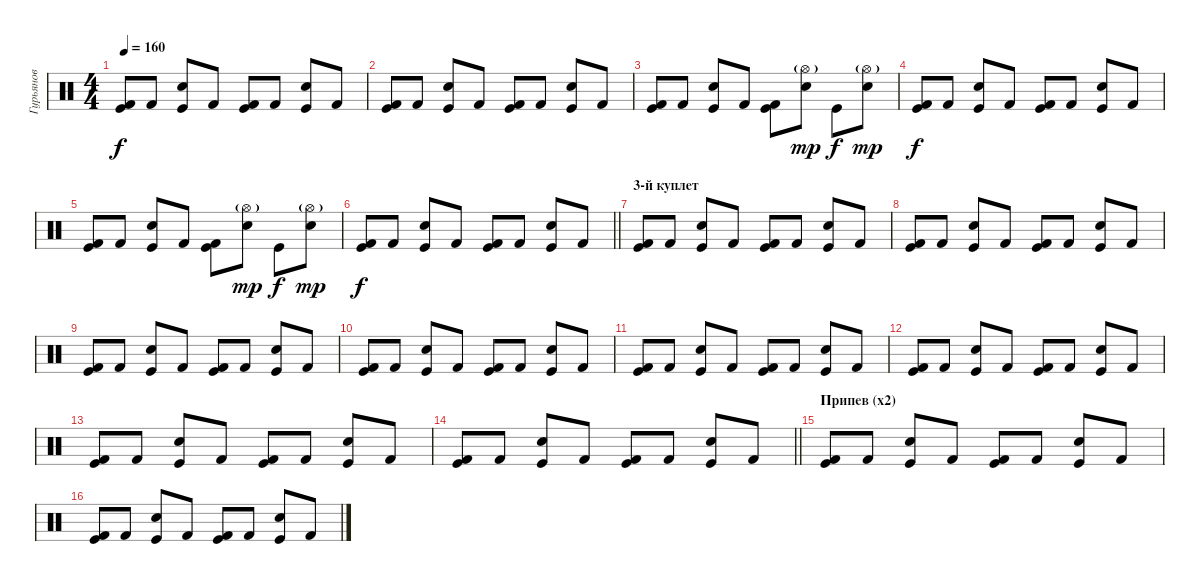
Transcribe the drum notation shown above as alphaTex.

\track ("Гурьянов" "Гурьянов") {instrument percussion}
\staff {score}
\articulation defaults
\ts (4 4)
\tempo 160
\clef neutral
\ks c
("Kick (hit)" "Kick (hit) 2").8{dy f} "Kick (hit) 2".8 ("Snare (hit) 2" "Kick (hit)").8 "Kick (hit) 2".8 ("Kick (hit)" "Kick (hit) 2").8 "Kick (hit) 2".8 ("Snare (hit) 2" "Kick (hit)").8 "Kick (hit) 2".8 |
("Kick (hit)" "Kick (hit) 2").8 "Kick (hit) 2".8 ("Snare (hit) 2" "Kick (hit)").8 "Kick (hit) 2".8 ("Kick (hit)" "Kick (hit) 2").8 "Kick (hit) 2".8 ("Snare (hit) 2" "Kick (hit)").8 "Kick (hit) 2".8 |
("Kick (hit)" "Kick (hit) 2").8 "Kick (hit) 2".8 ("Snare (hit) 2" "Kick (hit)").8 "Kick (hit) 2".8 ("Kick (hit)" "Kick (hit) 2").8 ("Hi-Hat (open)"{g} "Snare (hit) 2").8{dy mp} "Kick (hit)".8{dy f} ("Hi-Hat (open)"{g} "Snare (hit) 2").8{dy mp} |
("Kick (hit)" "Kick (hit) 2").8{dy f} "Kick (hit) 2".8 ("Snare (hit) 2" "Kick (hit)").8 "Kick (hit) 2".8 ("Kick (hit)" "Kick (hit) 2").8 "Kick (hit) 2".8 ("Snare (hit) 2" "Kick (hit)").8 "Kick (hit) 2".8 |
("Kick (hit)" "Kick (hit) 2").8 "Kick (hit) 2".8 ("Snare (hit) 2" "Kick (hit)").8 "Kick (hit) 2".8 ("Kick (hit)" "Kick (hit) 2").8 ("Hi-Hat (open)"{g} "Snare (hit) 2").8{dy mp} "Kick (hit)".8{dy f} ("Hi-Hat (open)"{g} "Snare (hit) 2").8{dy mp} |
\barLineRight lightlight
("Kick (hit)" "Kick (hit) 2").8{dy f} "Kick (hit) 2".8 ("Snare (hit) 2" "Kick (hit)").8 "Kick (hit) 2".8 ("Kick (hit)" "Kick (hit) 2").8 "Kick (hit) 2".8 ("Snare (hit) 2" "Kick (hit)").8 "Kick (hit) 2".8 |
\section ("" "3-й куплет")
("Kick (hit)" "Kick (hit) 2").8 "Kick (hit) 2".8 ("Snare (hit) 2" "Kick (hit)").8 "Kick (hit) 2".8 ("Kick (hit)" "Kick (hit) 2").8 "Kick (hit) 2".8 ("Snare (hit) 2" "Kick (hit)").8 "Kick (hit) 2".8 |
("Kick (hit)" "Kick (hit) 2").8 "Kick (hit) 2".8 ("Snare (hit) 2" "Kick (hit)").8 "Kick (hit) 2".8 ("Kick (hit)" "Kick (hit) 2").8 "Kick (hit) 2".8 ("Snare (hit) 2" "Kick (hit)").8 "Kick (hit) 2".8 |
("Kick (hit)" "Kick (hit) 2").8 "Kick (hit) 2".8 ("Snare (hit) 2" "Kick (hit)").8 "Kick (hit) 2".8 ("Kick (hit)" "Kick (hit) 2").8 "Kick (hit) 2".8 ("Snare (hit) 2" "Kick (hit)").8 "Kick (hit) 2".8 |
("Kick (hit)" "Kick (hit) 2").8 "Kick (hit) 2".8 ("Snare (hit) 2" "Kick (hit)").8 "Kick (hit) 2".8 ("Kick (hit)" "Kick (hit) 2").8 "Kick (hit) 2".8 ("Snare (hit) 2" "Kick (hit)").8 "Kick (hit) 2".8 |
("Kick (hit)" "Kick (hit) 2").8 "Kick (hit) 2".8 ("Snare (hit) 2" "Kick (hit)").8 "Kick (hit) 2".8 ("Kick (hit)" "Kick (hit) 2").8 "Kick (hit) 2".8 ("Snare (hit) 2" "Kick (hit)").8 "Kick (hit) 2".8 |
("Kick (hit)" "Kick (hit) 2").8 "Kick (hit) 2".8 ("Snare (hit) 2" "Kick (hit)").8 "Kick (hit) 2".8 ("Kick (hit)" "Kick (hit) 2").8 "Kick (hit) 2".8 ("Snare (hit) 2" "Kick (hit)").8 "Kick (hit) 2".8 |
("Kick (hit)" "Kick (hit) 2").8 "Kick (hit) 2".8 ("Snare (hit) 2" "Kick (hit)").8 "Kick (hit) 2".8 ("Kick (hit)" "Kick (hit) 2").8 "Kick (hit) 2".8 ("Snare (hit) 2" "Kick (hit)").8 "Kick (hit) 2".8 |
\barLineRight lightlight
("Kick (hit)" "Kick (hit) 2").8 "Kick (hit) 2".8 ("Snare (hit) 2" "Kick (hit)").8 "Kick (hit) 2".8 ("Kick (hit)" "Kick (hit) 2").8 "Kick (hit) 2".8 ("Snare (hit) 2" "Kick (hit)").8 "Kick (hit) 2".8 |
\section ("" "Припев (х2)")
("Kick (hit)" "Kick (hit) 2").8 "Kick (hit) 2".8 ("Snare (hit) 2" "Kick (hit)").8 "Kick (hit) 2".8 ("Kick (hit)" "Kick (hit) 2").8 "Kick (hit) 2".8 ("Snare (hit) 2" "Kick (hit)").8 "Kick (hit) 2".8 |
("Kick (hit)" "Kick (hit) 2").8 "Kick (hit) 2".8 ("Snare (hit) 2" "Kick (hit)").8 "Kick (hit) 2".8 ("Kick (hit)" "Kick (hit) 2").8 "Kick (hit) 2".8 ("Snare (hit) 2" "Kick (hit)").8 "Kick (hit) 2".8
